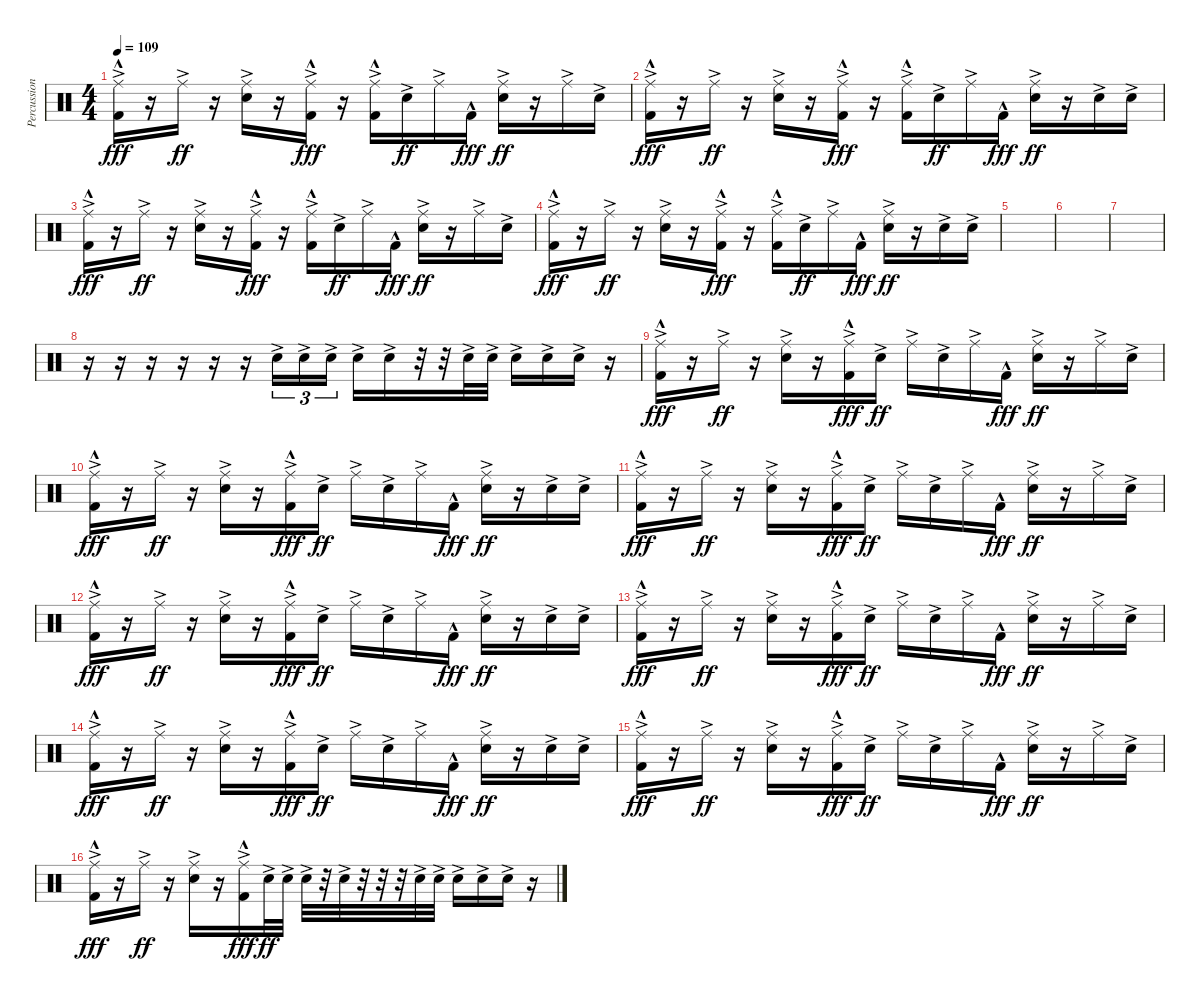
\track ("Percussion" "Percussion") {instrument percussion}
\staff {score}
\articulation defaults
\ts (4 4)
\tempo 109
\clef neutral
\ks c
("Ride (middle)"{ac} "Kick (hit) 2"{hac}).16{dy fff} r.16 "Ride (middle)"{ac}.16{dy ff} r.16 ("Ride (middle)"{ac} "Snare (hit) 2"{ac}).16 r.16 ("Ride (middle)"{ac} "Kick (hit) 2"{hac}).16{dy fff} r.16 ("Ride (middle)"{ac} "Kick (hit) 2"{hac}).16 "Snare (hit) 2"{ac}.16{dy ff} "Ride (middle)"{ac}.16 "Kick (hit) 2"{hac}.16{dy fff} ("Ride (middle)"{ac} "Snare (hit) 2"{ac}).16{dy ff} r.16 "Ride (middle)"{ac}.16 "Snare (hit) 2"{ac}.16 |
("Ride (middle)"{ac} "Kick (hit) 2"{hac}).16{dy fff} r.16 "Ride (middle)"{ac}.16{dy ff} r.16 ("Ride (middle)"{ac} "Snare (hit) 2"{ac}).16 r.16 ("Ride (middle)"{ac} "Kick (hit) 2"{hac}).16{dy fff} r.16 ("Ride (middle)"{ac} "Kick (hit) 2"{hac}).16 "Snare (hit) 2"{ac}.16{dy ff} "Ride (middle)"{ac}.16 "Kick (hit) 2"{hac}.16{dy fff} ("Ride (middle)"{ac} "Snare (hit) 2"{ac}).16{dy ff} r.16 "Snare (hit) 2"{ac}.16 "Snare (hit) 2"{ac}.16 |
("Ride (middle)"{ac} "Kick (hit) 2"{hac}).16{dy fff} r.16 "Ride (middle)"{ac}.16{dy ff} r.16 ("Ride (middle)"{ac} "Snare (hit) 2"{ac}).16 r.16 ("Ride (middle)"{ac} "Kick (hit) 2"{hac}).16{dy fff} r.16 ("Ride (middle)"{ac} "Kick (hit) 2"{hac}).16 "Snare (hit) 2"{ac}.16{dy ff} "Ride (middle)"{ac}.16 "Kick (hit) 2"{hac}.16{dy fff} ("Ride (middle)"{ac} "Snare (hit) 2"{ac}).16{dy ff} r.16 "Ride (middle)"{ac}.16 "Snare (hit) 2"{ac}.16 |
("Ride (middle)"{ac} "Kick (hit) 2"{hac}).16{dy fff} r.16 "Ride (middle)"{ac}.16{dy ff} r.16 ("Ride (middle)"{ac} "Snare (hit) 2"{ac}).16 r.16 ("Ride (middle)"{ac} "Kick (hit) 2"{hac}).16{dy fff} r.16 ("Ride (middle)"{ac} "Kick (hit) 2"{hac}).16 "Snare (hit) 2"{ac}.16{dy ff} "Ride (middle)"{ac}.16 "Kick (hit) 2"{hac}.16{dy fff} ("Ride (middle)"{ac} "Snare (hit) 2"{ac}).16{dy ff} r.16 "Snare (hit) 2"{ac}.16 "Snare (hit) 2"{ac}.16 |
|
|
|
r.16 r.16 r.16 r.16 r.16 r.16 "Snare (hit) 2"{ac}.16{tu (3 2)} "Snare (hit) 2"{ac}.16{tu (3 2)} "Snare (hit) 2"{ac}.16{tu (3 2)} "Snare (hit) 2"{ac}.16 "Snare (hit) 2"{ac}.16 r.32 r.32 "Snare (hit) 2"{ac}.32 "Snare (hit) 2"{ac}.32 "Snare (hit) 2"{ac}.16 "Snare (hit) 2"{ac}.16 "Snare (hit) 2"{ac}.16 r.16 |
("Ride (middle)"{ac} "Kick (hit) 2"{hac}).16{dy fff} r.16 "Ride (middle)"{ac}.16{dy ff} r.16 ("Ride (middle)"{ac} "Snare (hit) 2"{ac}).16 r.16 ("Ride (middle)"{ac} "Kick (hit) 2"{hac}).16{dy fff} "Snare (hit) 2"{ac}.16{dy ff} "Ride (middle)"{ac}.16 "Snare (hit) 2"{ac}.16 "Ride (middle)"{ac}.16 "Kick (hit) 2"{hac}.16{dy fff} ("Ride (middle)"{ac} "Snare (hit) 2"{ac}).16{dy ff} r.16 "Ride (middle)"{ac}.16 "Snare (hit) 2"{ac}.16 |
("Ride (middle)"{ac} "Kick (hit) 2"{hac}).16{dy fff} r.16 "Ride (middle)"{ac}.16{dy ff} r.16 ("Ride (middle)"{ac} "Snare (hit) 2"{ac}).16 r.16 ("Ride (middle)"{ac} "Kick (hit) 2"{hac}).16{dy fff} "Snare (hit) 2"{ac}.16{dy ff} "Ride (middle)"{ac}.16 "Snare (hit) 2"{ac}.16 "Ride (middle)"{ac}.16 "Kick (hit) 2"{hac}.16{dy fff} ("Ride (middle)"{ac} "Snare (hit) 2"{ac}).16{dy ff} r.16 "Snare (hit) 2"{ac}.16 "Snare (hit) 2"{ac}.16 |
("Ride (middle)"{ac} "Kick (hit) 2"{hac}).16{dy fff} r.16 "Ride (middle)"{ac}.16{dy ff} r.16 ("Ride (middle)"{ac} "Snare (hit) 2"{ac}).16 r.16 ("Ride (middle)"{ac} "Kick (hit) 2"{hac}).16{dy fff} "Snare (hit) 2"{ac}.16{dy ff} "Ride (middle)"{ac}.16 "Snare (hit) 2"{ac}.16 "Ride (middle)"{ac}.16 "Kick (hit) 2"{hac}.16{dy fff} ("Ride (middle)"{ac} "Snare (hit) 2"{ac}).16{dy ff} r.16 "Ride (middle)"{ac}.16 "Snare (hit) 2"{ac}.16 |
("Ride (middle)"{ac} "Kick (hit) 2"{hac}).16{dy fff} r.16 "Ride (middle)"{ac}.16{dy ff} r.16 ("Ride (middle)"{ac} "Snare (hit) 2"{ac}).16 r.16 ("Ride (middle)"{ac} "Kick (hit) 2"{hac}).16{dy fff} "Snare (hit) 2"{ac}.16{dy ff} "Ride (middle)"{ac}.16 "Snare (hit) 2"{ac}.16 "Ride (middle)"{ac}.16 "Kick (hit) 2"{hac}.16{dy fff} ("Ride (middle)"{ac} "Snare (hit) 2"{ac}).16{dy ff} r.16 "Snare (hit) 2"{ac}.16 "Snare (hit) 2"{ac}.16 |
("Ride (middle)"{ac} "Kick (hit) 2"{hac}).16{dy fff} r.16 "Ride (middle)"{ac}.16{dy ff} r.16 ("Ride (middle)"{ac} "Snare (hit) 2"{ac}).16 r.16 ("Ride (middle)"{ac} "Kick (hit) 2"{hac}).16{dy fff} "Snare (hit) 2"{ac}.16{dy ff} "Ride (middle)"{ac}.16 "Snare (hit) 2"{ac}.16 "Ride (middle)"{ac}.16 "Kick (hit) 2"{hac}.16{dy fff} ("Ride (middle)"{ac} "Snare (hit) 2"{ac}).16{dy ff} r.16 "Ride (middle)"{ac}.16 "Snare (hit) 2"{ac}.16 |
("Ride (middle)"{ac} "Kick (hit) 2"{hac}).16{dy fff} r.16 "Ride (middle)"{ac}.16{dy ff} r.16 ("Ride (middle)"{ac} "Snare (hit) 2"{ac}).16 r.16 ("Ride (middle)"{ac} "Kick (hit) 2"{hac}).16{dy fff} "Snare (hit) 2"{ac}.16{dy ff} "Ride (middle)"{ac}.16 "Snare (hit) 2"{ac}.16 "Ride (middle)"{ac}.16 "Kick (hit) 2"{hac}.16{dy fff} ("Ride (middle)"{ac} "Snare (hit) 2"{ac}).16{dy ff} r.16 "Snare (hit) 2"{ac}.16 "Snare (hit) 2"{ac}.16 |
("Ride (middle)"{ac} "Kick (hit) 2"{hac}).16{dy fff} r.16 "Ride (middle)"{ac}.16{dy ff} r.16 ("Ride (middle)"{ac} "Snare (hit) 2"{ac}).16 r.16 ("Ride (middle)"{ac} "Kick (hit) 2"{hac}).16{dy fff} "Snare (hit) 2"{ac}.16{dy ff} "Ride (middle)"{ac}.16 "Snare (hit) 2"{ac}.16 "Ride (middle)"{ac}.16 "Kick (hit) 2"{hac}.16{dy fff} ("Ride (middle)"{ac} "Snare (hit) 2"{ac}).16{dy ff} r.16 "Ride (middle)"{ac}.16 "Snare (hit) 2"{ac}.16 |
("Ride (middle)"{ac} "Kick (hit) 2"{hac}).16{dy fff} r.16 "Ride (middle)"{ac}.16{dy ff} r.16 ("Ride (middle)"{ac} "Snare (hit) 2"{ac}).16 r.16 ("Ride (middle)"{ac} "Kick (hit) 2"{hac}).16{dy fff} "Snare (hit) 2"{ac}.32{dy ff} "Snare (hit) 2"{ac}.32 "Snare (hit) 2"{ac}.32 r.32 "Snare (hit) 2"{ac}.32 r.32 r.32 r.32 "Snare (hit) 2"{ac}.32 "Snare (hit) 2"{ac}.32 "Snare (hit) 2"{ac}.16 "Snare (hit) 2"{ac}.16 "Snare (hit) 2"{ac}.16 r.16
